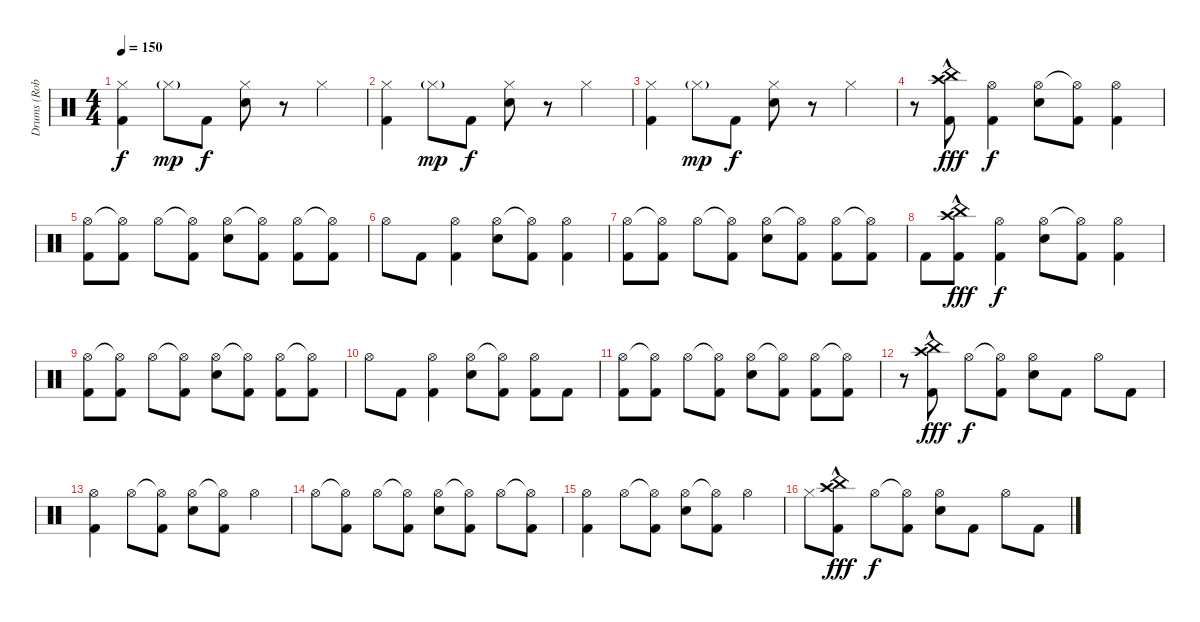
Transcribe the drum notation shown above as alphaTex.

\track ("Drums (Rob)" "Drums (Rob") {instrument percussion}
\staff {score}
\articulation defaults
\ts (4 4)
\tempo 150
\clef neutral
\ks c
("Hi-Hat (closed)" "Kick (hit) 2").4{dy f} "Hi-Hat (closed)"{g}.8{dy mp} "Kick (hit) 2".8{dy f} ("Hi-Hat (closed)" "Electric Snare (hit)").8 r.8 "Hi-Hat (closed)".4 |
("Hi-Hat (closed)" "Kick (hit) 2").4 "Hi-Hat (closed)"{g}.8{dy mp} "Kick (hit) 2".8{dy f} ("Hi-Hat (closed)" "Electric Snare (hit)").8 r.8 "Hi-Hat (closed)".4 |
("Hi-Hat (closed)" "Kick (hit) 2").4 "Hi-Hat (closed)"{g}.8{dy mp} "Kick (hit) 2".8{dy f} ("Hi-Hat (closed)" "Electric Snare (hit)").8 r.8 "Hi-Hat (closed)".4 |
r.8 ("Crash high (hit)"{hac} "China (hit)"{hac} "Kick (hit) 2").8{dy fff} ("Hi-Hat (open)" "Kick (hit) 2").4{dy f} ("Hi-Hat (open)" "Snare (hit) 2").8 ("Hi-Hat (open)"{t} "Kick (hit) 2").8 ("Hi-Hat (open)" "Kick (hit) 2").4 |
("Hi-Hat (open)" "Kick (hit) 2").8 ("Hi-Hat (open)"{t} "Kick (hit) 2").8 "Hi-Hat (open)".8 ("Hi-Hat (open)"{t} "Kick (hit) 2").8 ("Hi-Hat (open)" "Snare (hit) 2").8 ("Hi-Hat (open)"{t} "Kick (hit) 2").8 ("Hi-Hat (open)" "Kick (hit) 2").8 ("Hi-Hat (open)"{t} "Kick (hit) 2").8 |
"Hi-Hat (open)".8 "Kick (hit) 2".8 ("Hi-Hat (open)" "Kick (hit) 2").4 ("Hi-Hat (open)" "Snare (hit) 2").8 ("Hi-Hat (open)"{t} "Kick (hit) 2").8 ("Hi-Hat (open)" "Kick (hit) 2").4 |
("Hi-Hat (open)" "Kick (hit) 2").8 ("Hi-Hat (open)"{t} "Kick (hit) 2").8 "Hi-Hat (open)".8 ("Hi-Hat (open)"{t} "Kick (hit) 2").8 ("Hi-Hat (open)" "Snare (hit) 2").8 ("Hi-Hat (open)"{t} "Kick (hit) 2").8 ("Hi-Hat (open)" "Kick (hit) 2").8 ("Hi-Hat (open)"{t} "Kick (hit) 2").8 |
"Kick (hit) 2".8 ("Crash high (hit)"{hac} "China (hit)"{hac} "Kick (hit) 2").8{dy fff} ("Hi-Hat (open)" "Kick (hit) 2").4{dy f} ("Hi-Hat (open)" "Snare (hit) 2").8 ("Hi-Hat (open)"{t} "Kick (hit) 2").8 ("Hi-Hat (open)" "Kick (hit) 2").4 |
("Hi-Hat (open)" "Kick (hit) 2").8 ("Hi-Hat (open)"{t} "Kick (hit) 2").8 "Hi-Hat (open)".8 ("Hi-Hat (open)"{t} "Kick (hit) 2").8 ("Hi-Hat (open)" "Snare (hit) 2").8 ("Hi-Hat (open)"{t} "Kick (hit) 2").8 ("Hi-Hat (open)" "Kick (hit) 2").8 ("Hi-Hat (open)"{t} "Kick (hit) 2").8 |
"Hi-Hat (open)".8 "Kick (hit) 2".8 ("Hi-Hat (open)" "Kick (hit) 2").4 ("Hi-Hat (open)" "Snare (hit) 2").8 ("Hi-Hat (open)"{t} "Kick (hit) 2").8 ("Hi-Hat (open)" "Kick (hit) 2").8 "Kick (hit) 2".8 |
("Hi-Hat (open)" "Kick (hit) 2").8 ("Hi-Hat (open)"{t} "Kick (hit) 2").8 "Hi-Hat (open)".8 ("Hi-Hat (open)"{t} "Kick (hit) 2").8 ("Hi-Hat (open)" "Snare (hit) 2").8 ("Hi-Hat (open)"{t} "Kick (hit) 2").8 ("Hi-Hat (open)" "Kick (hit) 2").8 ("Hi-Hat (open)"{t} "Kick (hit) 2").8 |
r.8 ("Crash high (hit)"{hac} "China (hit)"{hac} "Kick (hit) 2").8{dy fff} "Hi-Hat (open)".8{dy f} ("Hi-Hat (open)"{t} "Kick (hit) 2").8 ("Hi-Hat (open)" "Snare (hit) 2").8 "Kick (hit) 2".8 "Hi-Hat (open)".8 "Kick (hit) 2".8 |
("Hi-Hat (open)" "Kick (hit) 2").4 "Hi-Hat (open)".8 ("Hi-Hat (open)"{t} "Kick (hit) 2").8 ("Hi-Hat (open)" "Snare (hit) 2").8 ("Hi-Hat (open)"{t} "Kick (hit) 2").8 "Hi-Hat (open)".4 |
"Hi-Hat (open)".8 ("Hi-Hat (open)"{t} "Kick (hit) 2").8 "Hi-Hat (open)".8 ("Hi-Hat (open)"{t} "Kick (hit) 2").8 ("Hi-Hat (open)" "Snare (hit) 2").8 ("Hi-Hat (open)"{t} "Kick (hit) 2").8 "Hi-Hat (open)".8 ("Hi-Hat (open)"{t} "Kick (hit) 2").8 |
("Hi-Hat (open)" "Kick (hit) 2").4 "Hi-Hat (open)".8 ("Hi-Hat (open)"{t} "Kick (hit) 2").8 ("Hi-Hat (open)" "Snare (hit) 2").8 ("Hi-Hat (open)"{t} "Kick (hit) 2").8 "Hi-Hat (open)".4 |
"Hi-Hat (closed)".8 ("Crash high (hit)"{hac} "China (hit)"{hac} "Kick (hit) 2").8{dy fff} "Hi-Hat (open)".8{dy f} ("Hi-Hat (open)"{t} "Kick (hit) 2").8 ("Hi-Hat (open)" "Snare (hit) 2").8 "Kick (hit) 2".8 "Hi-Hat (open)".8 "Kick (hit) 2".8
